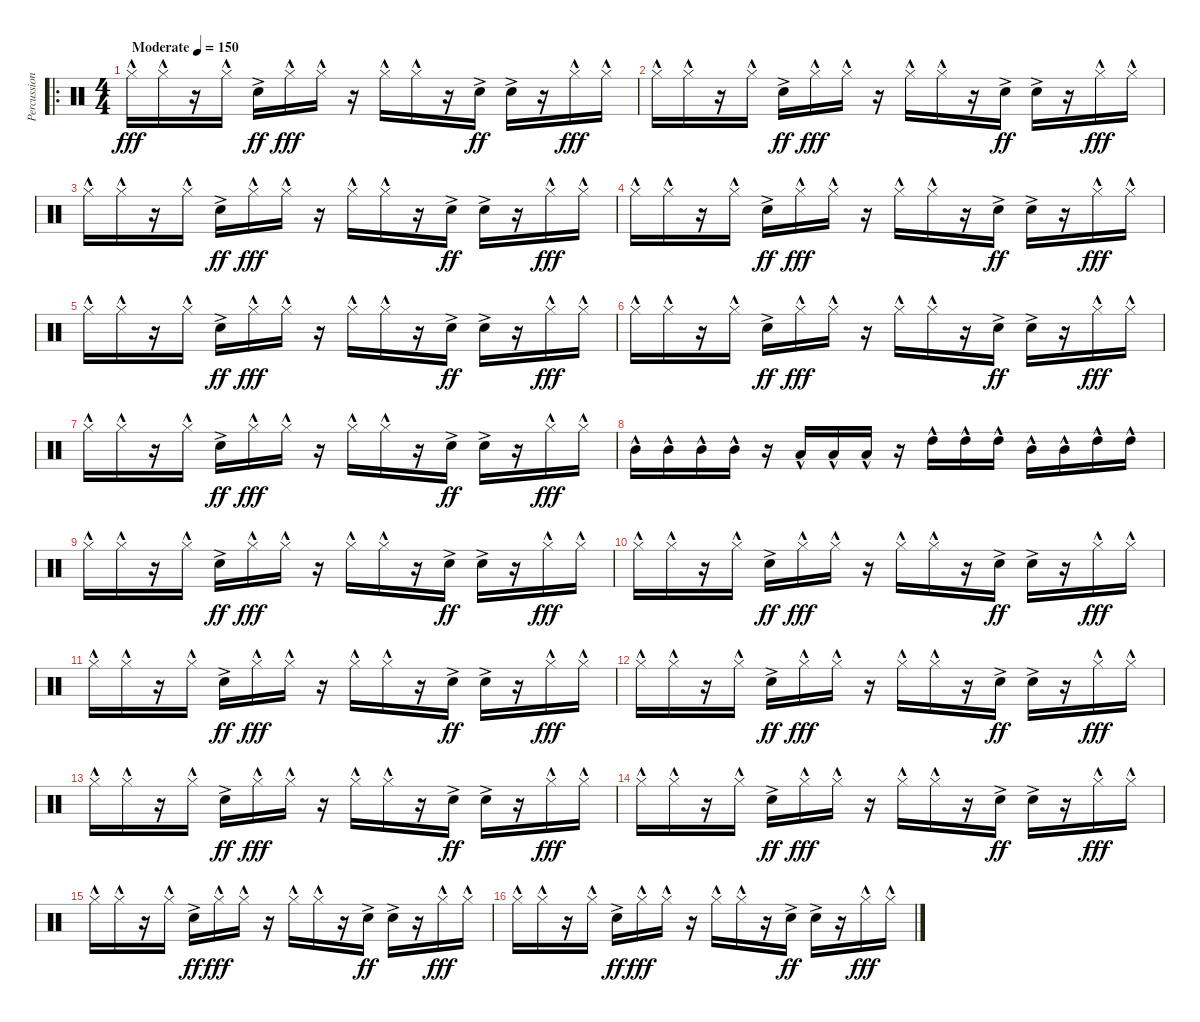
\track ("Percussion" "Percussion") {instrument percussion bank 255}
\staff {score}
\articulation defaults
\ro
\ts (4 4)
\tempo (150 "Moderate")
\clef neutral
\ks c "Hi-Hat (closed)"{hac}.16{dy fff} "Hi-Hat (closed)"{hac}.16
r.16 "Hi-Hat (closed)"{hac}.16 "Snare (hit) 2"{ac}.16{dy ff} "Hi-Hat (closed)"{hac}.16{dy fff} "Hi-Hat (closed)"{hac}.16 r.16 "Hi-Hat (closed)"{hac}.16 "Hi-Hat (closed)"{hac}.16 r.16 "Snare (hit) 2"{ac}.16{dy ff} "Snare (hit) 2"{ac}.16 r.16 "Hi-Hat (closed)"{hac}.16{dy fff} "Hi-Hat (closed)"{hac}.16 |
"Hi-Hat (closed)"{hac}.16 "Hi-Hat (closed)"{hac}.16 r.16 "Hi-Hat (closed)"{hac}.16 "Snare (hit) 2"{ac}.16{dy ff} "Hi-Hat (closed)"{hac}.16{dy fff} "Hi-Hat (closed)"{hac}.16 r.16 "Hi-Hat (closed)"{hac}.16 "Hi-Hat (closed)"{hac}.16 r.16 "Snare (hit) 2"{ac}.16{dy ff} "Snare (hit) 2"{ac}.16 r.16 "Hi-Hat (closed)"{hac}.16{dy fff} "Hi-Hat (closed)"{hac}.16 |
"Hi-Hat (closed)"{hac}.16 "Hi-Hat (closed)"{hac}.16 r.16 "Hi-Hat (closed)"{hac}.16 "Snare (hit) 2"{ac}.16{dy ff} "Hi-Hat (closed)"{hac}.16{dy fff} "Hi-Hat (closed)"{hac}.16 r.16 "Hi-Hat (closed)"{hac}.16 "Hi-Hat (closed)"{hac}.16 r.16 "Snare (hit) 2"{ac}.16{dy ff} "Snare (hit) 2"{ac}.16 r.16 "Hi-Hat (closed)"{hac}.16{dy fff} "Hi-Hat (closed)"{hac}.16 |
"Hi-Hat (closed)"{hac}.16 "Hi-Hat (closed)"{hac}.16 r.16 "Hi-Hat (closed)"{hac}.16 "Snare (hit) 2"{ac}.16{dy ff} "Hi-Hat (closed)"{hac}.16{dy fff} "Hi-Hat (closed)"{hac}.16 r.16 "Hi-Hat (closed)"{hac}.16 "Hi-Hat (closed)"{hac}.16 r.16 "Snare (hit) 2"{ac}.16{dy ff} "Snare (hit) 2"{ac}.16 r.16 "Hi-Hat (closed)"{hac}.16{dy fff} "Hi-Hat (closed)"{hac}.16 |
"Hi-Hat (closed)"{hac}.16 "Hi-Hat (closed)"{hac}.16 r.16 "Hi-Hat (closed)"{hac}.16 "Snare (hit) 2"{ac}.16{dy ff} "Hi-Hat (closed)"{hac}.16{dy fff} "Hi-Hat (closed)"{hac}.16 r.16 "Hi-Hat (closed)"{hac}.16 "Hi-Hat (closed)"{hac}.16 r.16 "Snare (hit) 2"{ac}.16{dy ff} "Snare (hit) 2"{ac}.16 r.16 "Hi-Hat (closed)"{hac}.16{dy fff} "Hi-Hat (closed)"{hac}.16 |
"Hi-Hat (closed)"{hac}.16 "Hi-Hat (closed)"{hac}.16 r.16 "Hi-Hat (closed)"{hac}.16 "Snare (hit) 2"{ac}.16{dy ff} "Hi-Hat (closed)"{hac}.16{dy fff} "Hi-Hat (closed)"{hac}.16 r.16 "Hi-Hat (closed)"{hac}.16 "Hi-Hat (closed)"{hac}.16 r.16 "Snare (hit) 2"{ac}.16{dy ff} "Snare (hit) 2"{ac}.16 r.16 "Hi-Hat (closed)"{hac}.16{dy fff} "Hi-Hat (closed)"{hac}.16 |
"Hi-Hat (closed)"{hac}.16 "Hi-Hat (closed)"{hac}.16 r.16 "Hi-Hat (closed)"{hac}.16 "Snare (hit) 2"{ac}.16{dy ff} "Hi-Hat (closed)"{hac}.16{dy fff} "Hi-Hat (closed)"{hac}.16 r.16 "Hi-Hat (closed)"{hac}.16 "Hi-Hat (closed)"{hac}.16 r.16 "Snare (hit) 2"{ac}.16{dy ff} "Snare (hit) 2"{ac}.16 r.16 "Hi-Hat (closed)"{hac}.16{dy fff} "Hi-Hat (closed)"{hac}.16 |
"Mid Tom (hit)"{hac}.16 "Mid Tom (hit)"{hac}.16 "Mid Tom (hit)"{hac}.16 "Mid Tom (hit)"{hac}.16 r.16 "Low Tom (hit)"{hac}.16 "Low Tom (hit)"{hac}.16 "Low Tom (hit)"{hac}.16 r.16 "High Tom (hit)"{hac}.16 "High Tom (hit)"{hac}.16 "High Tom (hit)"{hac}.16 "Mid Tom (hit)"{hac}.16 "Mid Tom (hit)"{hac}.16 "High Tom (hit)"{hac}.16 "High Tom (hit)"{hac}.16 |
"Hi-Hat (closed)"{hac}.16 "Hi-Hat (closed)"{hac}.16 r.16 "Hi-Hat (closed)"{hac}.16 "Snare (hit) 2"{ac}.16{dy ff} "Hi-Hat (closed)"{hac}.16{dy fff} "Hi-Hat (closed)"{hac}.16 r.16 "Hi-Hat (closed)"{hac}.16 "Hi-Hat (closed)"{hac}.16 r.16 "Snare (hit) 2"{ac}.16{dy ff} "Snare (hit) 2"{ac}.16 r.16 "Hi-Hat (closed)"{hac}.16{dy fff} "Hi-Hat (closed)"{hac}.16 |
"Hi-Hat (closed)"{hac}.16 "Hi-Hat (closed)"{hac}.16 r.16 "Hi-Hat (closed)"{hac}.16 "Snare (hit) 2"{ac}.16{dy ff} "Hi-Hat (closed)"{hac}.16{dy fff} "Hi-Hat (closed)"{hac}.16 r.16 "Hi-Hat (closed)"{hac}.16 "Hi-Hat (closed)"{hac}.16 r.16 "Snare (hit) 2"{ac}.16{dy ff} "Snare (hit) 2"{ac}.16 r.16 "Hi-Hat (closed)"{hac}.16{dy fff} "Hi-Hat (closed)"{hac}.16 |
"Hi-Hat (closed)"{hac}.16 "Hi-Hat (closed)"{hac}.16 r.16 "Hi-Hat (closed)"{hac}.16 "Snare (hit) 2"{ac}.16{dy ff} "Hi-Hat (closed)"{hac}.16{dy fff} "Hi-Hat (closed)"{hac}.16 r.16 "Hi-Hat (closed)"{hac}.16 "Hi-Hat (closed)"{hac}.16 r.16 "Snare (hit) 2"{ac}.16{dy ff} "Snare (hit) 2"{ac}.16 r.16 "Hi-Hat (closed)"{hac}.16{dy fff} "Hi-Hat (closed)"{hac}.16 |
"Hi-Hat (closed)"{hac}.16 "Hi-Hat (closed)"{hac}.16 r.16 "Hi-Hat (closed)"{hac}.16 "Snare (hit) 2"{ac}.16{dy ff} "Hi-Hat (closed)"{hac}.16{dy fff} "Hi-Hat (closed)"{hac}.16 r.16 "Hi-Hat (closed)"{hac}.16 "Hi-Hat (closed)"{hac}.16 r.16 "Snare (hit) 2"{ac}.16{dy ff} "Snare (hit) 2"{ac}.16 r.16 "Hi-Hat (closed)"{hac}.16{dy fff} "Hi-Hat (closed)"{hac}.16 |
"Hi-Hat (closed)"{hac}.16 "Hi-Hat (closed)"{hac}.16 r.16 "Hi-Hat (closed)"{hac}.16 "Snare (hit) 2"{ac}.16{dy ff} "Hi-Hat (closed)"{hac}.16{dy fff} "Hi-Hat (closed)"{hac}.16 r.16 "Hi-Hat (closed)"{hac}.16 "Hi-Hat (closed)"{hac}.16 r.16 "Snare (hit) 2"{ac}.16{dy ff} "Snare (hit) 2"{ac}.16 r.16 "Hi-Hat (closed)"{hac}.16{dy fff} "Hi-Hat (closed)"{hac}.16 |
"Hi-Hat (closed)"{hac}.16 "Hi-Hat (closed)"{hac}.16 r.16 "Hi-Hat (closed)"{hac}.16 "Snare (hit) 2"{ac}.16{dy ff} "Hi-Hat (closed)"{hac}.16{dy fff} "Hi-Hat (closed)"{hac}.16 r.16 "Hi-Hat (closed)"{hac}.16 "Hi-Hat (closed)"{hac}.16 r.16 "Snare (hit) 2"{ac}.16{dy ff} "Snare (hit) 2"{ac}.16 r.16 "Hi-Hat (closed)"{hac}.16{dy fff} "Hi-Hat (closed)"{hac}.16 |
"Hi-Hat (closed)"{hac}.16 "Hi-Hat (closed)"{hac}.16 r.16 "Hi-Hat (closed)"{hac}.16 "Snare (hit) 2"{ac}.16{dy ff} "Hi-Hat (closed)"{hac}.16{dy fff} "Hi-Hat (closed)"{hac}.16 r.16 "Hi-Hat (closed)"{hac}.16 "Hi-Hat (closed)"{hac}.16 r.16 "Snare (hit) 2"{ac}.16{dy ff} "Snare (hit) 2"{ac}.16 r.16 "Hi-Hat (closed)"{hac}.16{dy fff} "Hi-Hat (closed)"{hac}.16 |
"Hi-Hat (closed)"{hac}.16 "Hi-Hat (closed)"{hac}.16 r.16 "Hi-Hat (closed)"{hac}.16 "Snare (hit) 2"{ac}.16{dy ff} "Hi-Hat (closed)"{hac}.16{dy fff} "Hi-Hat (closed)"{hac}.16 r.16 "Hi-Hat (closed)"{hac}.16 "Hi-Hat (closed)"{hac}.16 r.16 "Snare (hit) 2"{ac}.16{dy ff} "Snare (hit) 2"{ac}.16 r.16 "Hi-Hat (closed)"{hac}.16{dy fff} "Hi-Hat (closed)"{hac}.16
